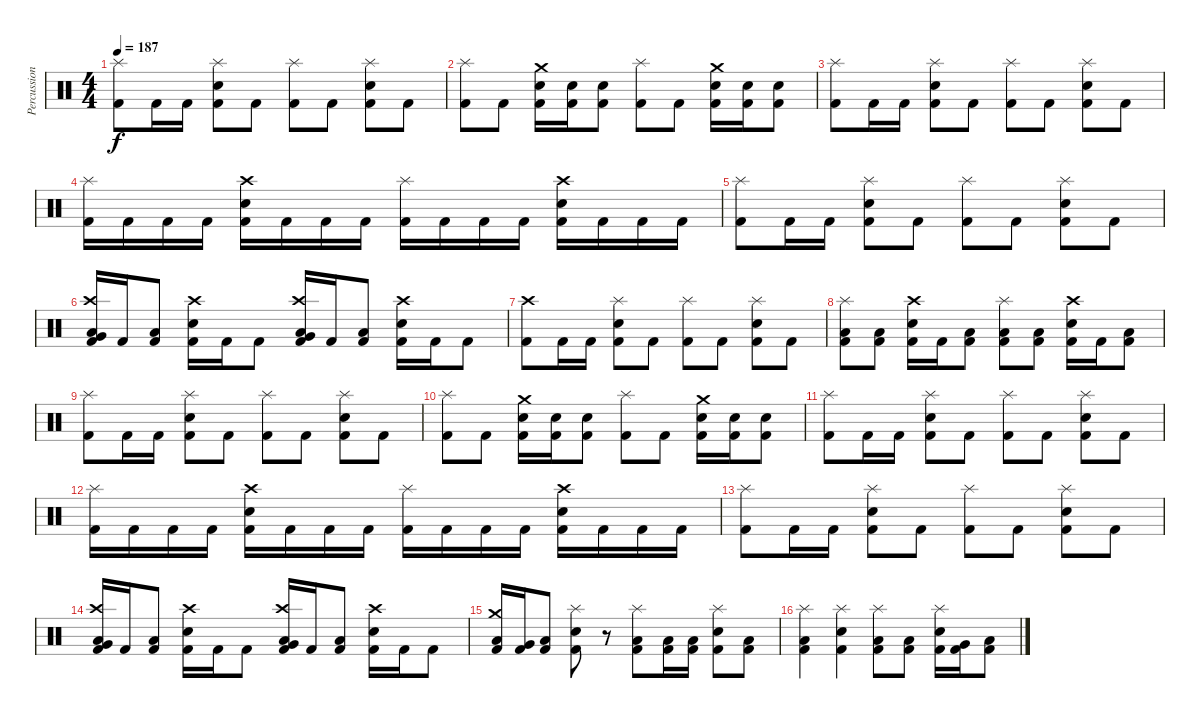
\track ("Percussion" "Percussion") {instrument percussion}
\staff {score}
\articulation defaults
\ts (4 4)
\tempo 187
\clef neutral
\ks c
("Splash (hit)" "Kick (hit) 2").8{dy f} "Kick (hit) 2".16 "Kick (hit) 2".16 ("Splash (hit)" "Electric Snare (hit)" "Kick (hit) 2").8 "Kick (hit) 2".8 ("Splash (hit)" "Kick (hit) 2").8 "Kick (hit) 2".8 ("Splash (hit)" "Electric Snare (hit)" "Kick (hit) 2").8 "Kick (hit) 2".8 |
("Splash (hit)" "Kick (hit) 2").8 "Kick (hit) 2".8 ("Crash medium (hit)" "Electric Snare (hit)" "Kick (hit) 2").16 ("Electric Snare (hit)" "Kick (hit) 2").16 ("Electric Snare (hit)" "Kick (hit) 2").8 ("Splash (hit)" "Kick (hit) 2").8 "Kick (hit) 2".8 ("Crash medium (hit)" "Electric Snare (hit)" "Kick (hit) 2").16 ("Electric Snare (hit)" "Kick (hit) 2").16 ("Electric Snare (hit)" "Kick (hit) 2").8 |
("Splash (hit)" "Kick (hit) 2").8 "Kick (hit) 2".16 "Kick (hit) 2".16 ("Splash (hit)" "Electric Snare (hit)" "Kick (hit) 2").8 "Kick (hit) 2".8 ("Splash (hit)" "Kick (hit) 2").8 "Kick (hit) 2".8 ("Splash (hit)" "Electric Snare (hit)" "Kick (hit) 2").8 "Kick (hit) 2".8 |
("Splash (hit)" "Kick (hit) 2").16 "Kick (hit) 2".16 "Kick (hit) 2".16 "Kick (hit) 2".16 ("Crash high (hit)" "Electric Snare (hit)" "Kick (hit) 2").16 "Kick (hit) 2".16 "Kick (hit) 2".16 "Kick (hit) 2".16 ("Splash (hit)" "Kick (hit) 2").16 "Kick (hit) 2".16 "Kick (hit) 2".16 "Kick (hit) 2".16 ("Crash high (hit)" "Electric Snare (hit)" "Kick (hit) 2").16 "Kick (hit) 2".16 "Kick (hit) 2".16 "Kick (hit) 2".16 |
("Splash (hit)" "Kick (hit) 2").8 "Kick (hit) 2".16 "Kick (hit) 2".16 ("Splash (hit)" "Electric Snare (hit)" "Kick (hit) 2").8 "Kick (hit) 2".8 ("Splash (hit)" "Kick (hit) 2").8 "Kick (hit) 2".8 ("Splash (hit)" "Electric Snare (hit)" "Kick (hit) 2").8 "Kick (hit) 2".8 |
("Crash high (hit)" "Very Low Tom (hit)" "Low Floor Tom (hit)" "Kick (hit) 2").16 "Kick (hit) 2".16 ("Low Floor Tom (hit)" "Kick (hit) 2").8 ("Crash high (hit)" "Electric Snare (hit)" "Kick (hit) 2").16 "Kick (hit) 2".16 "Kick (hit) 2".8 ("Crash high (hit)" "Very Low Tom (hit)" "Low Floor Tom (hit)" "Kick (hit) 2").16 "Kick (hit) 2".16 ("Low Floor Tom (hit)" "Kick (hit) 2").8 ("Crash high (hit)" "Electric Snare (hit)" "Kick (hit) 2").16 "Kick (hit) 2".16 "Kick (hit) 2".8 |
("Crash high (hit)" "Kick (hit) 2").8 "Kick (hit) 2".16 "Kick (hit) 2".16 ("Splash (hit)" "Electric Snare (hit)" "Kick (hit) 2").8 "Kick (hit) 2".8 ("Splash (hit)" "Kick (hit) 2").8 "Kick (hit) 2".8 ("Splash (hit)" "Electric Snare (hit)" "Kick (hit) 2").8 "Kick (hit) 2".8 |
("Splash (hit)" "Low Floor Tom (hit)" "Kick (hit) 2").8 ("Low Floor Tom (hit)" "Kick (hit) 2").8 ("Crash high (hit)" "Electric Snare (hit)" "Kick (hit) 2").16 "Kick (hit) 2".16 ("Low Floor Tom (hit)" "Kick (hit) 2").8 ("Splash (hit)" "Low Floor Tom (hit)" "Kick (hit) 2").8 ("Low Floor Tom (hit)" "Kick (hit) 2").8 ("Crash high (hit)" "Electric Snare (hit)" "Kick (hit) 2").16 "Kick (hit) 2".16 ("Low Floor Tom (hit)" "Kick (hit) 2").8 |
("Splash (hit)" "Kick (hit) 2").8 "Kick (hit) 2".16 "Kick (hit) 2".16 ("Splash (hit)" "Electric Snare (hit)" "Kick (hit) 2").8 "Kick (hit) 2".8 ("Splash (hit)" "Kick (hit) 2").8 "Kick (hit) 2".8 ("Splash (hit)" "Electric Snare (hit)" "Kick (hit) 2").8 "Kick (hit) 2".8 |
("Splash (hit)" "Kick (hit) 2").8 "Kick (hit) 2".8 ("Crash medium (hit)" "Electric Snare (hit)" "Kick (hit) 2").16 ("Electric Snare (hit)" "Kick (hit) 2").16 ("Electric Snare (hit)" "Kick (hit) 2").8 ("Splash (hit)" "Kick (hit) 2").8 "Kick (hit) 2".8 ("Crash medium (hit)" "Electric Snare (hit)" "Kick (hit) 2").16 ("Electric Snare (hit)" "Kick (hit) 2").16 ("Electric Snare (hit)" "Kick (hit) 2").8 |
("Splash (hit)" "Kick (hit) 2").8 "Kick (hit) 2".16 "Kick (hit) 2".16 ("Splash (hit)" "Electric Snare (hit)" "Kick (hit) 2").8 "Kick (hit) 2".8 ("Splash (hit)" "Kick (hit) 2").8 "Kick (hit) 2".8 ("Splash (hit)" "Electric Snare (hit)" "Kick (hit) 2").8 "Kick (hit) 2".8 |
("Splash (hit)" "Kick (hit) 2").16 "Kick (hit) 2".16 "Kick (hit) 2".16 "Kick (hit) 2".16 ("Crash high (hit)" "Electric Snare (hit)" "Kick (hit) 2").16 "Kick (hit) 2".16 "Kick (hit) 2".16 "Kick (hit) 2".16 ("Splash (hit)" "Kick (hit) 2").16 "Kick (hit) 2".16 "Kick (hit) 2".16 "Kick (hit) 2".16 ("Crash high (hit)" "Electric Snare (hit)" "Kick (hit) 2").16 "Kick (hit) 2".16 "Kick (hit) 2".16 "Kick (hit) 2".16 |
("Splash (hit)" "Kick (hit) 2").8 "Kick (hit) 2".16 "Kick (hit) 2".16 ("Splash (hit)" "Electric Snare (hit)" "Kick (hit) 2").8 "Kick (hit) 2".8 ("Splash (hit)" "Kick (hit) 2").8 "Kick (hit) 2".8 ("Splash (hit)" "Electric Snare (hit)" "Kick (hit) 2").8 "Kick (hit) 2".8 |
("Crash high (hit)" "Very Low Tom (hit)" "Low Floor Tom (hit)" "Kick (hit) 2").16 "Kick (hit) 2".16 ("Low Floor Tom (hit)" "Kick (hit) 2").8 ("Crash high (hit)" "Electric Snare (hit)" "Kick (hit) 2").16 "Kick (hit) 2".16 "Kick (hit) 2".8 ("Crash high (hit)" "Very Low Tom (hit)" "Low Floor Tom (hit)" "Kick (hit) 2").16 "Kick (hit) 2".16 ("Low Floor Tom (hit)" "Kick (hit) 2").8 ("Crash high (hit)" "Electric Snare (hit)" "Kick (hit) 2").16 "Kick (hit) 2".16 "Kick (hit) 2".8 |
("Crash medium (hit)" "Low Tom (hit)" "Kick (hit) 2").16 ("Very Low Tom (hit)" "Kick (hit) 2").16 ("Low Floor Tom (hit)" "Kick (hit) 2").8 ("Splash (hit)" "Electric Snare (hit)" "Kick (hit) 2").8 r.8 ("Splash (hit)" "Low Floor Tom (hit)" "Kick (hit) 2").8 ("Low Floor Tom (hit)" "Kick (hit) 2").16 ("Low Floor Tom (hit)" "Kick (hit) 2").16 ("Splash (hit)" "Electric Snare (hit)" "Kick (hit) 2").8 ("Low Floor Tom (hit)" "Kick (hit) 2").8 |
("Splash (hit)" "Low Floor Tom (hit)" "Kick (hit) 2").4 ("Splash (hit)" "Electric Snare (hit)" "Kick (hit) 2").4 ("Splash (hit)" "Low Floor Tom (hit)" "Kick (hit) 2").8 ("Low Floor Tom (hit)" "Kick (hit) 2").8 ("Splash (hit)" "Electric Snare (hit)" "Kick (hit) 2").16 ("Very Low Tom (hit)" "Kick (hit) 2").16 ("Low Floor Tom (hit)" "Kick (hit) 2").8
